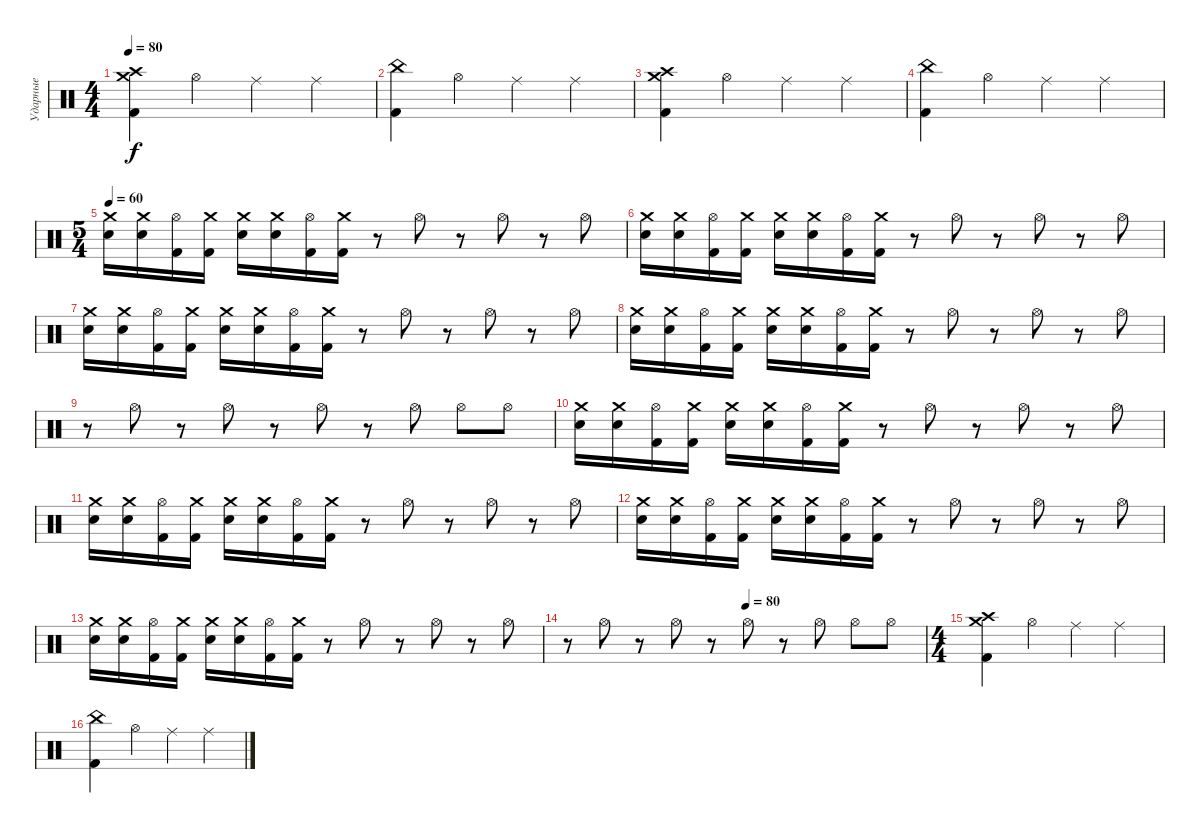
\track ("Ударные" "Ударные") {instrument percussion}
\staff {score}
\articulation defaults
\ts (4 4)
\tempo 80
\clef neutral
\ks c
("Crash medium (hit)" "Crash high (hit)" "Kick (hit) 2").4{dy f} "Hi-Hat (open)".4 "Ride (middle)".4 "Ride (middle)".4 |
("China (hit)" "Kick (hit) 2").4 "Hi-Hat (open)".4 "Ride (middle)".4 "Ride (middle)".4 |
("Crash medium (hit)" "Crash high (hit)" "Kick (hit) 2").4 "Hi-Hat (open)".4 "Ride (middle)".4 "Ride (middle)".4 |
("China (hit)" "Kick (hit) 2").4 "Hi-Hat (open)".4 "Ride (middle)".4 "Ride (middle)".4 |
\ts (5 4)
\tempo 60
("Crash medium (hit)" "Electric Snare (hit)").16 ("Crash medium (hit)" "Electric Snare (hit)").16 ("Hi-Hat (open)" "Kick (hit) 2").16 ("Crash medium (hit)" "Kick (hit) 2").16 ("Crash medium (hit)" "Electric Snare (hit)").16 ("Crash medium (hit)" "Electric Snare (hit)").16 ("Hi-Hat (open)" "Kick (hit) 2").16 ("Crash medium (hit)" "Kick (hit) 2").16 r.8 "Hi-Hat (open)".8 r.8 "Hi-Hat (open)".8 r.8 "Hi-Hat (open)".8 |
("Crash medium (hit)" "Electric Snare (hit)").16 ("Crash medium (hit)" "Electric Snare (hit)").16 ("Hi-Hat (open)" "Kick (hit) 2").16 ("Crash medium (hit)" "Kick (hit) 2").16 ("Crash medium (hit)" "Electric Snare (hit)").16 ("Crash medium (hit)" "Electric Snare (hit)").16 ("Hi-Hat (open)" "Kick (hit) 2").16 ("Crash medium (hit)" "Kick (hit) 2").16 r.8 "Hi-Hat (open)".8 r.8 "Hi-Hat (open)".8 r.8 "Hi-Hat (open)".8 |
("Crash medium (hit)" "Electric Snare (hit)").16 ("Crash medium (hit)" "Electric Snare (hit)").16 ("Hi-Hat (open)" "Kick (hit) 2").16 ("Crash medium (hit)" "Kick (hit) 2").16 ("Crash medium (hit)" "Electric Snare (hit)").16 ("Crash medium (hit)" "Electric Snare (hit)").16 ("Hi-Hat (open)" "Kick (hit) 2").16 ("Crash medium (hit)" "Kick (hit) 2").16 r.8 "Hi-Hat (open)".8 r.8 "Hi-Hat (open)".8 r.8 "Hi-Hat (open)".8 |
("Crash medium (hit)" "Electric Snare (hit)").16 ("Crash medium (hit)" "Electric Snare (hit)").16 ("Hi-Hat (open)" "Kick (hit) 2").16 ("Crash medium (hit)" "Kick (hit) 2").16 ("Crash medium (hit)" "Electric Snare (hit)").16 ("Crash medium (hit)" "Electric Snare (hit)").16 ("Hi-Hat (open)" "Kick (hit) 2").16 ("Crash medium (hit)" "Kick (hit) 2").16 r.8 "Hi-Hat (open)".8 r.8 "Hi-Hat (open)".8 r.8 "Hi-Hat (open)".8 |
r.8 "Hi-Hat (open)".8 r.8 "Hi-Hat (open)".8 r.8 "Hi-Hat (open)".8 r.8 "Hi-Hat (open)".8 "Hi-Hat (open)".8 "Hi-Hat (open)".8 |
("Crash medium (hit)" "Electric Snare (hit)").16 ("Crash medium (hit)" "Electric Snare (hit)").16 ("Hi-Hat (open)" "Kick (hit) 2").16 ("Crash medium (hit)" "Kick (hit) 2").16 ("Crash medium (hit)" "Electric Snare (hit)").16 ("Crash medium (hit)" "Electric Snare (hit)").16 ("Hi-Hat (open)" "Kick (hit) 2").16 ("Crash medium (hit)" "Kick (hit) 2").16 r.8 "Hi-Hat (open)".8 r.8 "Hi-Hat (open)".8 r.8 "Hi-Hat (open)".8 |
("Crash medium (hit)" "Electric Snare (hit)").16 ("Crash medium (hit)" "Electric Snare (hit)").16 ("Hi-Hat (open)" "Kick (hit) 2").16 ("Crash medium (hit)" "Kick (hit) 2").16 ("Crash medium (hit)" "Electric Snare (hit)").16 ("Crash medium (hit)" "Electric Snare (hit)").16 ("Hi-Hat (open)" "Kick (hit) 2").16 ("Crash medium (hit)" "Kick (hit) 2").16 r.8 "Hi-Hat (open)".8 r.8 "Hi-Hat (open)".8 r.8 "Hi-Hat (open)".8 |
("Crash medium (hit)" "Electric Snare (hit)").16 ("Crash medium (hit)" "Electric Snare (hit)").16 ("Hi-Hat (open)" "Kick (hit) 2").16 ("Crash medium (hit)" "Kick (hit) 2").16 ("Crash medium (hit)" "Electric Snare (hit)").16 ("Crash medium (hit)" "Electric Snare (hit)").16 ("Hi-Hat (open)" "Kick (hit) 2").16 ("Crash medium (hit)" "Kick (hit) 2").16 r.8 "Hi-Hat (open)".8 r.8 "Hi-Hat (open)".8 r.8 "Hi-Hat (open)".8 |
("Crash medium (hit)" "Electric Snare (hit)").16 ("Crash medium (hit)" "Electric Snare (hit)").16 ("Hi-Hat (open)" "Kick (hit) 2").16 ("Crash medium (hit)" "Kick (hit) 2").16 ("Crash medium (hit)" "Electric Snare (hit)").16 ("Crash medium (hit)" "Electric Snare (hit)").16 ("Hi-Hat (open)" "Kick (hit) 2").16 ("Crash medium (hit)" "Kick (hit) 2").16 r.8 "Hi-Hat (open)".8 r.8 "Hi-Hat (open)".8 r.8 "Hi-Hat (open)".8 |
\tempo (80 0.5)
r.8 "Hi-Hat (open)".8 r.8 "Hi-Hat (open)".8 r.8 "Hi-Hat (open)".8 r.8 "Hi-Hat (open)".8 "Hi-Hat (open)".8 "Hi-Hat (open)".8 |
\ts (4 4)
("Crash medium (hit)" "Crash high (hit)" "Kick (hit) 2").4 "Hi-Hat (open)".4 "Ride (middle)".4 "Ride (middle)".4 |
("China (hit)" "Kick (hit) 2").4 "Hi-Hat (open)".4 "Ride (middle)".4 "Ride (middle)".4
